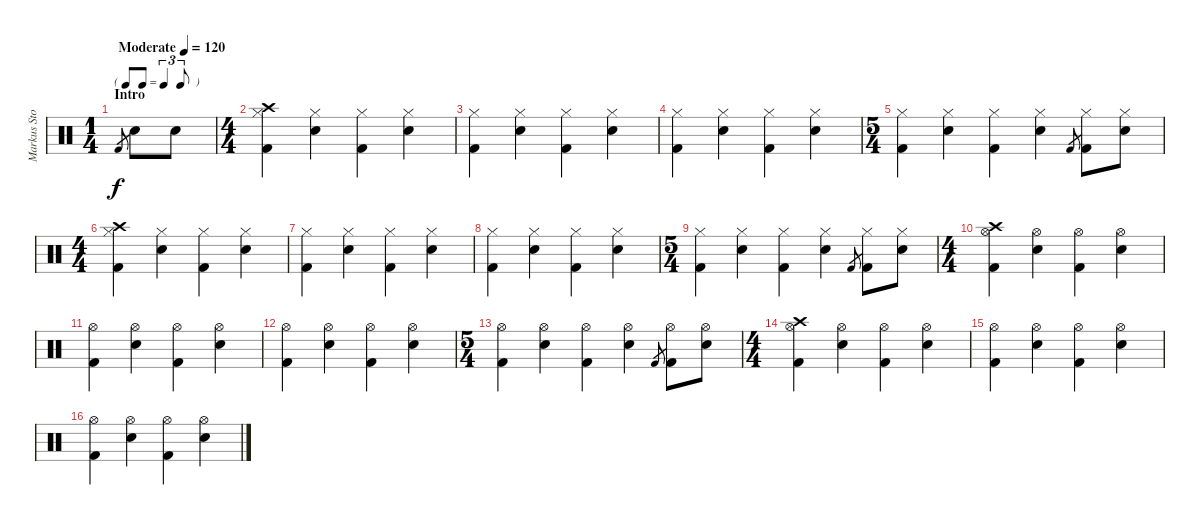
\track ("Markus Stock" "Markus Sto") {instrument percussion}
\staff {score}
\articulation defaults
\ts (1 4)
\tf triplet8th
\section ("" "Intro")
\tempo (120 "Moderate")
\clef neutral
\ks c "Kick (hit) 2".8{gr dy f} "Snare (hit) 2".8 "Snare (hit) 2".8
|
\ts (4 4)
("Crash high (hit)" "Hi-Hat (closed)" "Kick (hit) 2").4 ("Hi-Hat (closed)" "Snare (hit) 2").4 ("Hi-Hat (closed)" "Kick (hit) 2").4 ("Hi-Hat (closed)" "Snare (hit) 2").4 |
("Hi-Hat (closed)" "Kick (hit) 2").4 ("Hi-Hat (closed)" "Snare (hit) 2").4 ("Hi-Hat (closed)" "Kick (hit) 2").4 ("Hi-Hat (closed)" "Snare (hit) 2").4 |
("Hi-Hat (closed)" "Kick (hit) 2").4 ("Hi-Hat (closed)" "Snare (hit) 2").4 ("Hi-Hat (closed)" "Kick (hit) 2").4 ("Hi-Hat (closed)" "Snare (hit) 2").4 |
\ts (5 4)
("Hi-Hat (closed)" "Kick (hit) 2").4 ("Hi-Hat (closed)" "Snare (hit) 2").4 ("Hi-Hat (closed)" "Kick (hit) 2").4 ("Hi-Hat (closed)" "Snare (hit) 2").4 "Kick (hit) 2".8{gr} ("Hi-Hat (closed)" "Kick (hit) 2").8 ("Hi-Hat (closed)" "Snare (hit) 2").8 |
\ts (4 4)
("Crash high (hit)" "Hi-Hat (closed)" "Kick (hit) 2").4 ("Hi-Hat (closed)" "Snare (hit) 2").4 ("Hi-Hat (closed)" "Kick (hit) 2").4 ("Hi-Hat (closed)" "Snare (hit) 2").4 |
("Hi-Hat (closed)" "Kick (hit) 2").4 ("Hi-Hat (closed)" "Snare (hit) 2").4 ("Hi-Hat (closed)" "Kick (hit) 2").4 ("Hi-Hat (closed)" "Snare (hit) 2").4 |
("Hi-Hat (closed)" "Kick (hit) 2").4 ("Hi-Hat (closed)" "Snare (hit) 2").4 ("Hi-Hat (closed)" "Kick (hit) 2").4 ("Hi-Hat (closed)" "Snare (hit) 2").4 |
\ts (5 4)
("Hi-Hat (closed)" "Kick (hit) 2").4 ("Hi-Hat (closed)" "Snare (hit) 2").4 ("Hi-Hat (closed)" "Kick (hit) 2").4 ("Hi-Hat (closed)" "Snare (hit) 2").4 "Kick (hit) 2".8{gr} ("Hi-Hat (closed)" "Kick (hit) 2").8 ("Hi-Hat (closed)" "Snare (hit) 2").8 |
\ts (4 4)
("Crash high (hit)" "Hi-Hat (open)" "Kick (hit) 2").4 ("Hi-Hat (open)" "Snare (hit) 2").4 ("Hi-Hat (open)" "Kick (hit) 2").4 ("Hi-Hat (open)" "Snare (hit) 2").4 |
("Hi-Hat (open)" "Kick (hit) 2").4 ("Hi-Hat (open)" "Snare (hit) 2").4 ("Hi-Hat (open)" "Kick (hit) 2").4 ("Hi-Hat (open)" "Snare (hit) 2").4 |
("Hi-Hat (open)" "Kick (hit) 2").4 ("Hi-Hat (open)" "Snare (hit) 2").4 ("Hi-Hat (open)" "Kick (hit) 2").4 ("Hi-Hat (open)" "Snare (hit) 2").4 |
\ts (5 4)
("Hi-Hat (open)" "Kick (hit) 2").4 ("Hi-Hat (open)" "Snare (hit) 2").4 ("Hi-Hat (open)" "Kick (hit) 2").4 ("Hi-Hat (open)" "Snare (hit) 2").4 "Kick (hit) 2".8{gr} ("Hi-Hat (open)" "Kick (hit) 2").8 ("Hi-Hat (open)" "Snare (hit) 2").8 |
\ts (4 4)
("Crash high (hit)" "Hi-Hat (open)" "Kick (hit) 2").4 ("Hi-Hat (open)" "Snare (hit) 2").4 ("Hi-Hat (open)" "Kick (hit) 2").4 ("Hi-Hat (open)" "Snare (hit) 2").4 |
("Hi-Hat (open)" "Kick (hit) 2").4 ("Hi-Hat (open)" "Snare (hit) 2").4 ("Hi-Hat (open)" "Kick (hit) 2").4 ("Hi-Hat (open)" "Snare (hit) 2").4 |
("Hi-Hat (open)" "Kick (hit) 2").4 ("Hi-Hat (open)" "Snare (hit) 2").4 ("Hi-Hat (open)" "Kick (hit) 2").4 ("Hi-Hat (open)" "Snare (hit) 2").4
